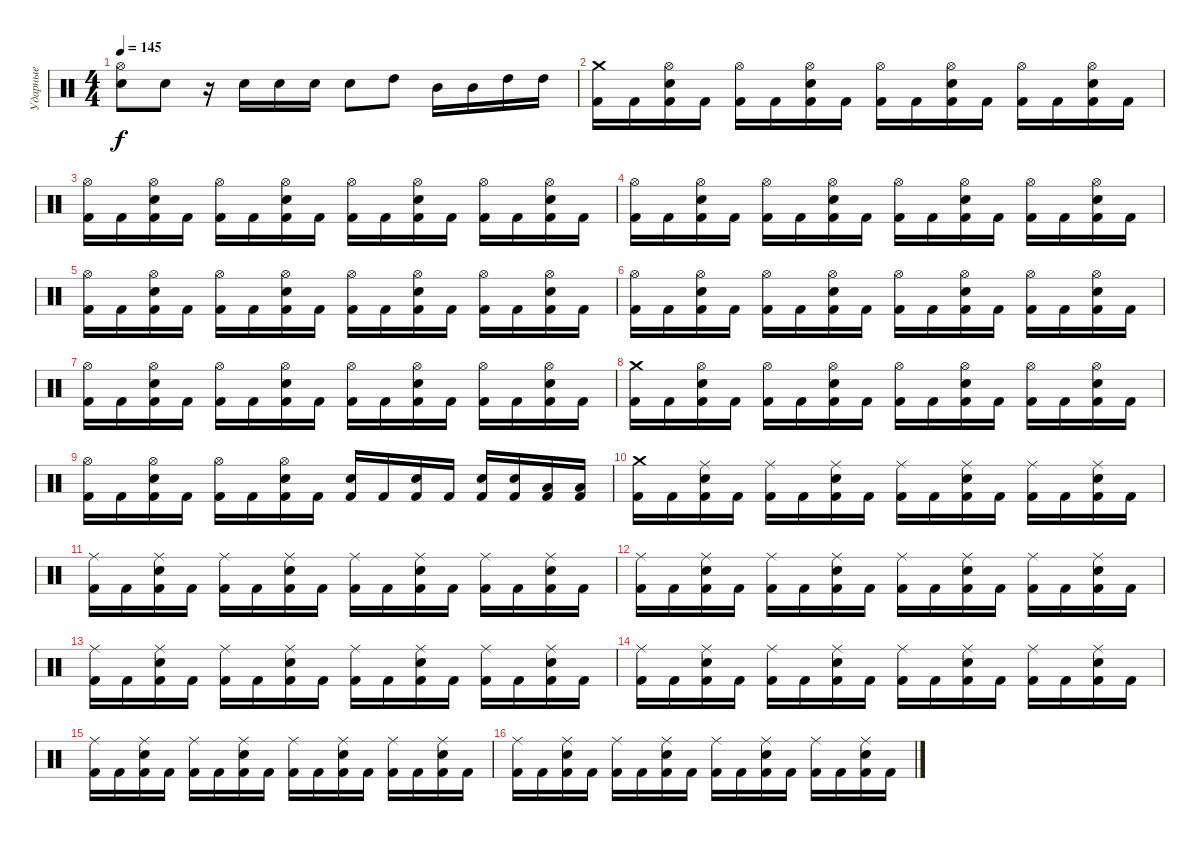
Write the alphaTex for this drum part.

\track ("Ударные" "Ударные") {instrument percussion}
\staff {score}
\articulation defaults
\ts (4 4)
\tempo 145
\clef neutral
\ks c
("Snare (hit) 2" "Hi-Hat (open)").8{dy f} "Snare (hit) 2".8 r.16 "Snare (hit) 2".16 "Snare (hit) 2".16 "Snare (hit) 2".16 "Snare (hit) 2".8 "High Tom (hit)".8 "Mid Tom (hit)".16 "Mid Tom (hit)".16 "High Tom (hit)".16 "High Tom (hit)".16 |
("Kick (hit) 2" "Crash medium (hit)").16 "Kick (hit) 2".16 ("Kick (hit) 2" "Snare (hit) 2" "Hi-Hat (open)").16 "Kick (hit) 2".16 ("Kick (hit) 2" "Hi-Hat (open)").16 "Kick (hit) 2".16 ("Kick (hit) 2" "Snare (hit) 2" "Hi-Hat (open)").16 "Kick (hit) 2".16 ("Kick (hit) 2" "Hi-Hat (open)").16 "Kick (hit) 2".16 ("Kick (hit) 2" "Snare (hit) 2" "Hi-Hat (open)").16 "Kick (hit) 2".16 ("Kick (hit) 2" "Hi-Hat (open)").16 "Kick (hit) 2".16 ("Kick (hit) 2" "Snare (hit) 2" "Hi-Hat (open)").16 "Kick (hit) 2".16 |
("Hi-Hat (open)" "Kick (hit) 2").16 "Kick (hit) 2".16 ("Kick (hit) 2" "Snare (hit) 2" "Hi-Hat (open)").16 "Kick (hit) 2".16 ("Kick (hit) 2" "Hi-Hat (open)").16 "Kick (hit) 2".16 ("Kick (hit) 2" "Snare (hit) 2" "Hi-Hat (open)").16 "Kick (hit) 2".16 ("Kick (hit) 2" "Hi-Hat (open)").16 "Kick (hit) 2".16 ("Kick (hit) 2" "Snare (hit) 2" "Hi-Hat (open)").16 "Kick (hit) 2".16 ("Kick (hit) 2" "Hi-Hat (open)").16 "Kick (hit) 2".16 ("Kick (hit) 2" "Snare (hit) 2" "Hi-Hat (open)").16 "Kick (hit) 2".16 |
("Hi-Hat (open)" "Kick (hit) 2").16 "Kick (hit) 2".16 ("Kick (hit) 2" "Snare (hit) 2" "Hi-Hat (open)").16 "Kick (hit) 2".16 ("Kick (hit) 2" "Hi-Hat (open)").16 "Kick (hit) 2".16 ("Kick (hit) 2" "Snare (hit) 2" "Hi-Hat (open)").16 "Kick (hit) 2".16 ("Kick (hit) 2" "Hi-Hat (open)").16 "Kick (hit) 2".16 ("Kick (hit) 2" "Snare (hit) 2" "Hi-Hat (open)").16 "Kick (hit) 2".16 ("Kick (hit) 2" "Hi-Hat (open)").16 "Kick (hit) 2".16 ("Kick (hit) 2" "Snare (hit) 2" "Hi-Hat (open)").16 "Kick (hit) 2".16 |
("Hi-Hat (open)" "Kick (hit) 2").16 "Kick (hit) 2".16 ("Kick (hit) 2" "Snare (hit) 2" "Hi-Hat (open)").16 "Kick (hit) 2".16 ("Kick (hit) 2" "Hi-Hat (open)").16 "Kick (hit) 2".16 ("Kick (hit) 2" "Snare (hit) 2" "Hi-Hat (open)").16 "Kick (hit) 2".16 ("Kick (hit) 2" "Hi-Hat (open)").16 "Kick (hit) 2".16 ("Kick (hit) 2" "Snare (hit) 2" "Hi-Hat (open)").16 "Kick (hit) 2".16 ("Kick (hit) 2" "Hi-Hat (open)").16 "Kick (hit) 2".16 ("Kick (hit) 2" "Snare (hit) 2" "Hi-Hat (open)").16 "Kick (hit) 2".16 |
("Hi-Hat (open)" "Kick (hit) 2").16 "Kick (hit) 2".16 ("Kick (hit) 2" "Snare (hit) 2" "Hi-Hat (open)").16 "Kick (hit) 2".16 ("Kick (hit) 2" "Hi-Hat (open)").16 "Kick (hit) 2".16 ("Kick (hit) 2" "Snare (hit) 2" "Hi-Hat (open)").16 "Kick (hit) 2".16 ("Kick (hit) 2" "Hi-Hat (open)").16 "Kick (hit) 2".16 ("Kick (hit) 2" "Snare (hit) 2" "Hi-Hat (open)").16 "Kick (hit) 2".16 ("Kick (hit) 2" "Hi-Hat (open)").16 "Kick (hit) 2".16 ("Kick (hit) 2" "Snare (hit) 2" "Hi-Hat (open)").16 "Kick (hit) 2".16 |
("Hi-Hat (open)" "Kick (hit) 2").16 "Kick (hit) 2".16 ("Kick (hit) 2" "Snare (hit) 2" "Hi-Hat (open)").16 "Kick (hit) 2".16 ("Kick (hit) 2" "Hi-Hat (open)").16 "Kick (hit) 2".16 ("Kick (hit) 2" "Snare (hit) 2" "Hi-Hat (open)").16 "Kick (hit) 2".16 ("Kick (hit) 2" "Hi-Hat (open)").16 "Kick (hit) 2".16 ("Kick (hit) 2" "Snare (hit) 2" "Hi-Hat (open)").16 "Kick (hit) 2".16 ("Kick (hit) 2" "Hi-Hat (open)").16 "Kick (hit) 2".16 ("Kick (hit) 2" "Snare (hit) 2" "Hi-Hat (open)").16 "Kick (hit) 2".16 |
("Crash medium (hit)" "Kick (hit) 2").16 "Kick (hit) 2".16 ("Kick (hit) 2" "Snare (hit) 2" "Hi-Hat (open)").16 "Kick (hit) 2".16 ("Kick (hit) 2" "Hi-Hat (open)").16 "Kick (hit) 2".16 ("Kick (hit) 2" "Snare (hit) 2" "Hi-Hat (open)").16 "Kick (hit) 2".16 ("Kick (hit) 2" "Hi-Hat (open)").16 "Kick (hit) 2".16 ("Kick (hit) 2" "Snare (hit) 2" "Hi-Hat (open)").16 "Kick (hit) 2".16 ("Kick (hit) 2" "Hi-Hat (open)").16 "Kick (hit) 2".16 ("Kick (hit) 2" "Snare (hit) 2" "Hi-Hat (open)").16 "Kick (hit) 2".16 |
("Hi-Hat (open)" "Kick (hit) 2").16 "Kick (hit) 2".16 ("Kick (hit) 2" "Snare (hit) 2" "Hi-Hat (open)").16 "Kick (hit) 2".16 ("Kick (hit) 2" "Hi-Hat (open)").16 "Kick (hit) 2".16 ("Kick (hit) 2" "Snare (hit) 2" "Hi-Hat (open)").16 "Kick (hit) 2".16 ("Snare (hit) 2" "Kick (hit) 2").16 "Kick (hit) 2".16 ("Kick (hit) 2" "Snare (hit) 2").16 "Kick (hit) 2".16 ("Snare (hit) 2" "Kick (hit) 2").16 ("Snare (hit) 2" "Kick (hit) 2").16 ("Low Tom (hit)" "Kick (hit) 2").16 ("Low Tom (hit)" "Kick (hit) 2").16 |
("Kick (hit) 2" "Crash medium (hit)").16 "Kick (hit) 2".16 ("Kick (hit) 2" "Snare (hit) 2" "Ride (middle)").16 "Kick (hit) 2".16 ("Kick (hit) 2" "Ride (middle)").16 "Kick (hit) 2".16 ("Kick (hit) 2" "Snare (hit) 2" "Ride (middle)").16 "Kick (hit) 2".16 ("Kick (hit) 2" "Ride (middle)").16 "Kick (hit) 2".16 ("Kick (hit) 2" "Snare (hit) 2" "Ride (middle)").16 "Kick (hit) 2".16 ("Kick (hit) 2" "Ride (middle)").16 "Kick (hit) 2".16 ("Kick (hit) 2" "Snare (hit) 2" "Ride (middle)").16 "Kick (hit) 2".16 |
("Ride (middle)" "Kick (hit) 2").16 "Kick (hit) 2".16 ("Kick (hit) 2" "Snare (hit) 2" "Ride (middle)").16 "Kick (hit) 2".16 ("Kick (hit) 2" "Ride (middle)").16 "Kick (hit) 2".16 ("Kick (hit) 2" "Snare (hit) 2" "Ride (middle)").16 "Kick (hit) 2".16 ("Kick (hit) 2" "Ride (middle)").16 "Kick (hit) 2".16 ("Kick (hit) 2" "Snare (hit) 2" "Ride (middle)").16 "Kick (hit) 2".16 ("Kick (hit) 2" "Ride (middle)").16 "Kick (hit) 2".16 ("Kick (hit) 2" "Snare (hit) 2" "Ride (middle)").16 "Kick (hit) 2".16 |
("Ride (middle)" "Kick (hit) 2").16 "Kick (hit) 2".16 ("Kick (hit) 2" "Snare (hit) 2" "Ride (middle)").16 "Kick (hit) 2".16 ("Kick (hit) 2" "Ride (middle)").16 "Kick (hit) 2".16 ("Kick (hit) 2" "Snare (hit) 2" "Ride (middle)").16 "Kick (hit) 2".16 ("Kick (hit) 2" "Ride (middle)").16 "Kick (hit) 2".16 ("Kick (hit) 2" "Snare (hit) 2" "Ride (middle)").16 "Kick (hit) 2".16 ("Kick (hit) 2" "Ride (middle)").16 "Kick (hit) 2".16 ("Kick (hit) 2" "Snare (hit) 2" "Ride (middle)").16 "Kick (hit) 2".16 |
("Ride (middle)" "Kick (hit) 2").16 "Kick (hit) 2".16 ("Kick (hit) 2" "Snare (hit) 2" "Ride (middle)").16 "Kick (hit) 2".16 ("Kick (hit) 2" "Ride (middle)").16 "Kick (hit) 2".16 ("Kick (hit) 2" "Snare (hit) 2" "Ride (middle)").16 "Kick (hit) 2".16 ("Kick (hit) 2" "Ride (middle)").16 "Kick (hit) 2".16 ("Kick (hit) 2" "Snare (hit) 2" "Ride (middle)").16 "Kick (hit) 2".16 ("Kick (hit) 2" "Ride (middle)").16 "Kick (hit) 2".16 ("Kick (hit) 2" "Snare (hit) 2" "Ride (middle)").16 "Kick (hit) 2".16 |
("Ride (middle)" "Kick (hit) 2").16 "Kick (hit) 2".16 ("Kick (hit) 2" "Snare (hit) 2" "Ride (middle)").16 "Kick (hit) 2".16 ("Kick (hit) 2" "Ride (middle)").16 "Kick (hit) 2".16 ("Kick (hit) 2" "Snare (hit) 2" "Ride (middle)").16 "Kick (hit) 2".16 ("Kick (hit) 2" "Ride (middle)").16 "Kick (hit) 2".16 ("Kick (hit) 2" "Snare (hit) 2" "Ride (middle)").16 "Kick (hit) 2".16 ("Kick (hit) 2" "Ride (middle)").16 "Kick (hit) 2".16 ("Kick (hit) 2" "Snare (hit) 2" "Ride (middle)").16 "Kick (hit) 2".16 |
("Ride (middle)" "Kick (hit) 2").16 "Kick (hit) 2".16 ("Kick (hit) 2" "Snare (hit) 2" "Ride (middle)").16 "Kick (hit) 2".16 ("Kick (hit) 2" "Ride (middle)").16 "Kick (hit) 2".16 ("Kick (hit) 2" "Snare (hit) 2" "Ride (middle)").16 "Kick (hit) 2".16 ("Kick (hit) 2" "Ride (middle)").16 "Kick (hit) 2".16 ("Kick (hit) 2" "Snare (hit) 2" "Ride (middle)").16 "Kick (hit) 2".16 ("Kick (hit) 2" "Ride (middle)").16 "Kick (hit) 2".16 ("Kick (hit) 2" "Snare (hit) 2" "Ride (middle)").16 "Kick (hit) 2".16 |
("Ride (middle)" "Kick (hit) 2").16 "Kick (hit) 2".16 ("Kick (hit) 2" "Snare (hit) 2" "Ride (middle)").16 "Kick (hit) 2".16 ("Kick (hit) 2" "Ride (middle)").16 "Kick (hit) 2".16 ("Kick (hit) 2" "Snare (hit) 2" "Ride (middle)").16 "Kick (hit) 2".16 ("Kick (hit) 2" "Ride (middle)").16 "Kick (hit) 2".16 ("Kick (hit) 2" "Snare (hit) 2" "Ride (middle)").16 "Kick (hit) 2".16 ("Kick (hit) 2" "Ride (middle)").16 "Kick (hit) 2".16 ("Kick (hit) 2" "Snare (hit) 2" "Ride (middle)").16 "Kick (hit) 2".16
